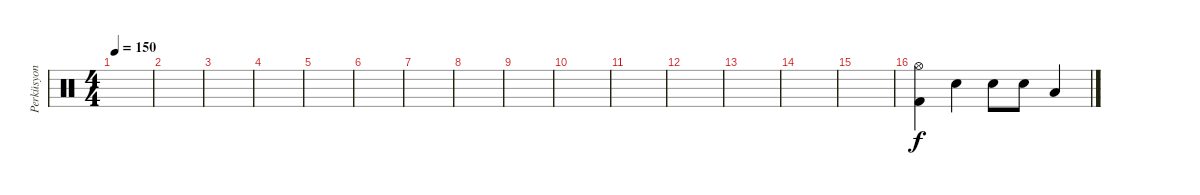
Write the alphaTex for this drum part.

\track ("Perküsyon" "Perküsyon") {instrument percussion}
\staff {score}
\articulation defaults
\ts (4 4)
\tempo 150
\clef neutral
\ks c
|
|
|
|
|
|
|
|
|
|
|
|
|
|
|
("Kick (hit) 2" "Hi-Hat (open)").4 "Electric Snare (hit)".4 "Electric Snare (hit)".8 "Electric Snare (hit)".8 "Low Tom (hit)".4
